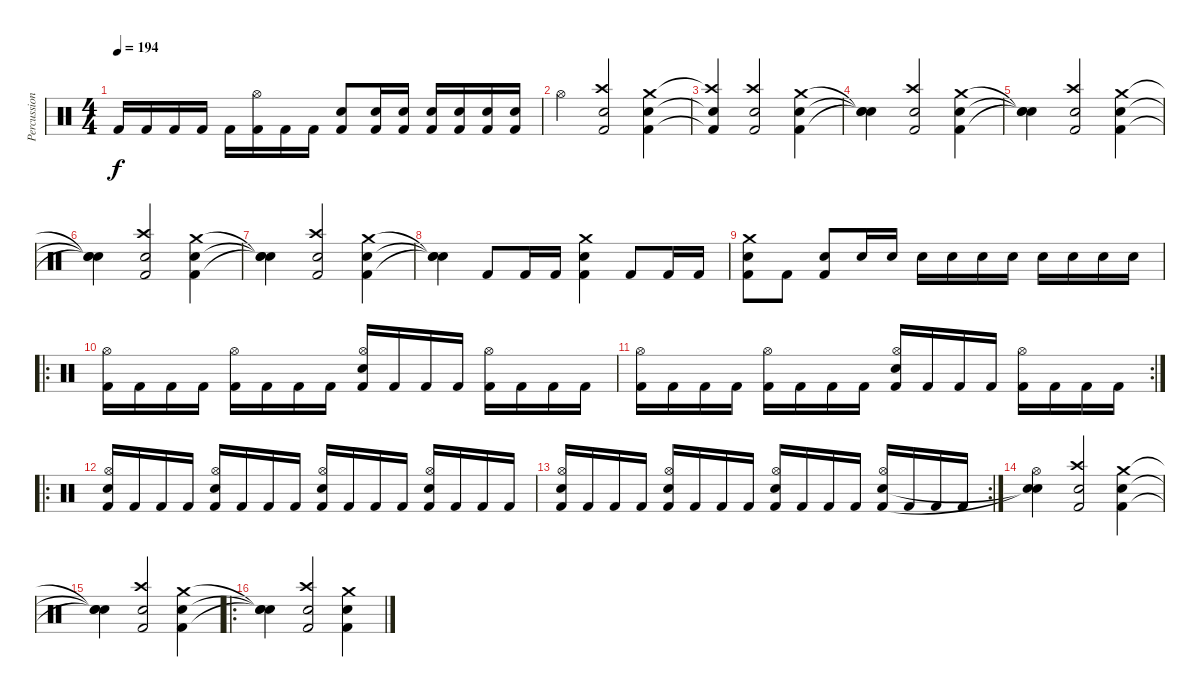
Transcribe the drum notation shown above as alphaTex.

\track ("Percussions" "Percussion") {instrument percussion}
\staff {score}
\articulation defaults
\ts (4 4)
\tempo 194
\clef neutral
\ks c "Kick (hit) 2".16{dy f} "Kick (hit) 2".16 "Kick (hit) 2".16 "Kick (hit) 2".16 "Kick (hit) 2".16
("Hi-Hat (open)" "Kick (hit) 2").16 "Kick (hit) 2".16 "Kick (hit) 2".16 ("Electric Snare (hit)" "Kick (hit) 2").8 ("Electric Snare (hit)" "Kick (hit) 2").16 ("Electric Snare (hit)" "Kick (hit) 2").16 ("Electric Snare (hit)" "Kick (hit) 2").16 ("Electric Snare (hit)" "Kick (hit) 2").16 ("Electric Snare (hit)" "Kick (hit) 2").16 ("Electric Snare (hit)" "Kick (hit) 2").16 |
"Hi-Hat (open)".4 ("Crash high (hit)" "Snare (hit) 2" "Kick (hit) 2").2 ("Crash medium (hit)" "Snare (hit) 2" "Kick (hit) 2").4 |
("Crash high (hit)"{t} "Snare (hit) 2"{t} "Kick (hit) 2"{t}).4 ("Crash high (hit)" "Snare (hit) 2" "Kick (hit) 2").2 ("Crash medium (hit)" "Snare (hit) 2" "Kick (hit) 2").4 |
("Snare (hit)"{t} "Snare (hit)"{t} "Snare (hit)"{t}).4 ("Crash high (hit)" "Snare (hit) 2" "Kick (hit) 2").2 ("Crash medium (hit)" "Snare (hit) 2" "Kick (hit) 2").4 |
("Snare (hit)"{t} "Snare (hit)"{t} "Snare (hit)"{t}).4 ("Crash high (hit)" "Snare (hit) 2" "Kick (hit) 2").2 ("Crash medium (hit)" "Snare (hit) 2" "Kick (hit) 2").4 |
("Snare (hit)"{t} "Snare (hit)"{t} "Snare (hit)"{t}).4 ("Crash high (hit)" "Snare (hit) 2" "Kick (hit) 2").2 ("Crash medium (hit)" "Snare (hit) 2" "Kick (hit) 2").4 |
("Snare (hit)"{t} "Snare (hit)"{t} "Snare (hit)"{t}).4 ("Crash high (hit)" "Snare (hit) 2" "Kick (hit) 2").2 ("Crash medium (hit)" "Snare (hit) 2" "Kick (hit) 2").4 |
("Snare (hit)"{t} "Snare (hit)"{t} "Snare (hit)"{t}).4 "Kick (hit) 2".8 "Kick (hit) 2".16 "Kick (hit) 2".16 ("Crash medium (hit)" "Snare (hit) 2" "Kick (hit) 2").4 "Kick (hit) 2".8 "Kick (hit) 2".16 "Kick (hit) 2".16 |
("Crash medium (hit)" "Snare (hit) 2" "Kick (hit) 2").8 "Kick (hit) 2".8 ("Electric Snare (hit)" "Kick (hit) 2").8 "Electric Snare (hit)".16 "Electric Snare (hit)".16 "Electric Snare (hit)".16 "Electric Snare (hit)".16 "Electric Snare (hit)".16 "Electric Snare (hit)".16 "Electric Snare (hit)".16 "Electric Snare (hit)".16 "Electric Snare (hit)".16 "Electric Snare (hit)".16 |
\ro
("Hi-Hat (open)" "Kick (hit) 2").16 "Kick (hit) 2".16 "Kick (hit) 2".16 "Kick (hit) 2".16 ("Hi-Hat (open)" "Kick (hit) 2").16 "Kick (hit) 2".16 "Kick (hit) 2".16 "Kick (hit) 2".16 ("Hi-Hat (open)" "Electric Snare (hit)" "Kick (hit) 2").16 "Kick (hit) 2".16 "Kick (hit) 2".16 "Kick (hit) 2".16 ("Hi-Hat (open)" "Kick (hit) 2").16 "Kick (hit) 2".16 "Kick (hit) 2".16 "Kick (hit) 2".16 |
\rc 2
("Hi-Hat (open)" "Kick (hit) 2").16 "Kick (hit) 2".16 "Kick (hit) 2".16 "Kick (hit) 2".16 ("Hi-Hat (open)" "Kick (hit) 2").16 "Kick (hit) 2".16 "Kick (hit) 2".16 "Kick (hit) 2".16 ("Hi-Hat (open)" "Electric Snare (hit)" "Kick (hit) 2").16 "Kick (hit) 2".16 "Kick (hit) 2".16 "Kick (hit) 2".16 ("Hi-Hat (open)" "Kick (hit) 2").16 "Kick (hit) 2".16 "Kick (hit) 2".16 "Kick (hit) 2".16 |
\ro
("Hi-Hat (open)" "Electric Snare (hit)" "Kick (hit) 2").16 "Kick (hit) 2".16 "Kick (hit) 2".16 "Kick (hit) 2".16 ("Hi-Hat (open)" "Electric Snare (hit)" "Kick (hit) 2").16 "Kick (hit) 2".16 "Kick (hit) 2".16 "Kick (hit) 2".16 ("Hi-Hat (open)" "Electric Snare (hit)" "Kick (hit) 2").16 "Kick (hit) 2".16 "Kick (hit) 2".16 "Kick (hit) 2".16 ("Hi-Hat (open)" "Electric Snare (hit)" "Kick (hit) 2").16 "Kick (hit) 2".16 "Kick (hit) 2".16 "Kick (hit) 2".16 |
\rc 2
("Hi-Hat (open)" "Electric Snare (hit)" "Kick (hit) 2").16 "Kick (hit) 2".16 "Kick (hit) 2".16 "Kick (hit) 2".16 ("Hi-Hat (open)" "Electric Snare (hit)" "Kick (hit) 2").16 "Kick (hit) 2".16 "Kick (hit) 2".16 "Kick (hit) 2".16 ("Hi-Hat (open)" "Electric Snare (hit)" "Kick (hit) 2").16 "Kick (hit) 2".16 "Kick (hit) 2".16 "Kick (hit) 2".16 ("Hi-Hat (open)" "Electric Snare (hit)" "Kick (hit) 2").16 "Kick (hit) 2".16 "Kick (hit) 2".16 "Kick (hit) 2".16 |
("Hi-Hat (open)" "Snare (hit)"{t} "Snare (hit)"{t}).4 ("Crash high (hit)" "Snare (hit) 2" "Kick (hit) 2").2 ("Crash medium (hit)" "Snare (hit) 2" "Kick (hit) 2").4 |
("Snare (hit)"{t} "Snare (hit)"{t} "Snare (hit)"{t}).4 ("Crash high (hit)" "Snare (hit) 2" "Kick (hit) 2").2 ("Crash medium (hit)" "Snare (hit) 2" "Kick (hit) 2").4 |
\ro
("Snare (hit)"{t} "Snare (hit)"{t} "Snare (hit)"{t}).4 ("Crash high (hit)" "Snare (hit) 2" "Kick (hit) 2").2 ("Crash medium (hit)" "Snare (hit) 2" "Kick (hit) 2").4
